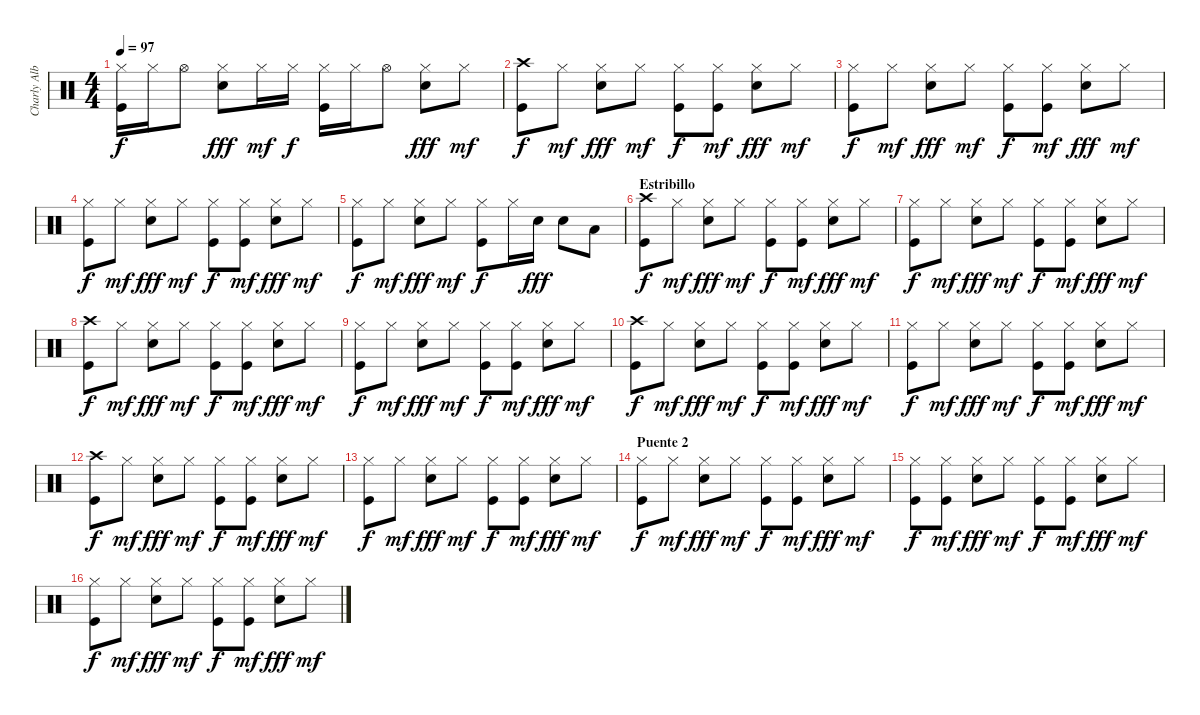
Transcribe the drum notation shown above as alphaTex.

\track ("Charly Alberti" "Charly Alb") {instrument percussion}
\staff {score}
\articulation defaults
\ts (4 4)
\tempo 97
\clef neutral
\ks c
("Kick (hit)" "Hi-Hat (closed)").16{dy f} "Hi-Hat (closed)".16 "Hi-Hat (open)".8 ("Snare (hit) 2" "Hi-Hat (closed)").8{dy fff} "Hi-Hat (closed)".16{dy mf} "Hi-Hat (closed)".16{dy f} ("Kick (hit)" "Hi-Hat (closed)").16 "Hi-Hat (closed)".16 "Hi-Hat (open)".8 ("Snare (hit) 2" "Hi-Hat (closed)").8{dy fff} "Hi-Hat (closed)".8{dy mf} |
("Kick (hit)" "Crash high (hit)").8{dy f} "Hi-Hat (closed)".8{dy mf} ("Snare (hit) 2" "Hi-Hat (closed)").8{dy fff} "Hi-Hat (closed)".8{dy mf} ("Kick (hit)" "Hi-Hat (closed)").8{dy f} ("Kick (hit)" "Hi-Hat (closed)").8{dy mf} ("Snare (hit) 2" "Hi-Hat (closed)").8{dy fff} "Hi-Hat (closed)".8{dy mf} |
("Kick (hit)" "Hi-Hat (closed)").8{dy f} "Hi-Hat (closed)".8{dy mf} ("Snare (hit) 2" "Hi-Hat (closed)").8{dy fff} "Hi-Hat (closed)".8{dy mf} ("Kick (hit)" "Hi-Hat (closed)").8{dy f} ("Kick (hit)" "Hi-Hat (closed)").8{dy mf} ("Snare (hit) 2" "Hi-Hat (closed)").8{dy fff} "Hi-Hat (closed)".8{dy mf} |
("Kick (hit)" "Hi-Hat (closed)").8{dy f} "Hi-Hat (closed)".8{dy mf} ("Snare (hit) 2" "Hi-Hat (closed)").8{dy fff} "Hi-Hat (closed)".8{dy mf} ("Kick (hit)" "Hi-Hat (closed)").8{dy f} ("Kick (hit)" "Hi-Hat (closed)").8{dy mf} ("Snare (hit) 2" "Hi-Hat (closed)").8{dy fff} "Hi-Hat (closed)".8{dy mf} |
("Kick (hit)" "Hi-Hat (closed)").8{dy f} "Hi-Hat (closed)".8{dy mf} ("Snare (hit) 2" "Hi-Hat (closed)").8{dy fff} "Hi-Hat (closed)".8{dy mf} ("Kick (hit)" "Hi-Hat (closed)").8{dy f} "Hi-Hat (closed)".16 "Snare (hit) 2".16{dy fff} "Snare (hit) 2".8 "Low Tom (hit)".8 |
\section ("" "Estribillo")
("Kick (hit)" "Crash high (hit)").8{dy f} "Hi-Hat (closed)".8{dy mf} ("Snare (hit) 2" "Hi-Hat (closed)").8{dy fff} "Hi-Hat (closed)".8{dy mf} ("Kick (hit)" "Hi-Hat (closed)").8{dy f} ("Kick (hit)" "Hi-Hat (closed)").8{dy mf} ("Snare (hit) 2" "Hi-Hat (closed)").8{dy fff} "Hi-Hat (closed)".8{dy mf} |
("Kick (hit)" "Hi-Hat (closed)").8{dy f} "Hi-Hat (closed)".8{dy mf} ("Snare (hit) 2" "Hi-Hat (closed)").8{dy fff} "Hi-Hat (closed)".8{dy mf} ("Kick (hit)" "Hi-Hat (closed)").8{dy f} ("Kick (hit)" "Hi-Hat (closed)").8{dy mf} ("Snare (hit) 2" "Hi-Hat (closed)").8{dy fff} "Hi-Hat (closed)".8{dy mf} |
("Kick (hit)" "Crash high (hit)").8{dy f} "Hi-Hat (closed)".8{dy mf} ("Snare (hit) 2" "Hi-Hat (closed)").8{dy fff} "Hi-Hat (closed)".8{dy mf} ("Kick (hit)" "Hi-Hat (closed)").8{dy f} ("Kick (hit)" "Hi-Hat (closed)").8{dy mf} ("Snare (hit) 2" "Hi-Hat (closed)").8{dy fff} "Hi-Hat (closed)".8{dy mf} |
("Kick (hit)" "Hi-Hat (closed)").8{dy f} "Hi-Hat (closed)".8{dy mf} ("Snare (hit) 2" "Hi-Hat (closed)").8{dy fff} "Hi-Hat (closed)".8{dy mf} ("Kick (hit)" "Hi-Hat (closed)").8{dy f} ("Kick (hit)" "Hi-Hat (closed)").8{dy mf} ("Snare (hit) 2" "Hi-Hat (closed)").8{dy fff} "Hi-Hat (closed)".8{dy mf} |
("Kick (hit)" "Crash high (hit)").8{dy f} "Hi-Hat (closed)".8{dy mf} ("Snare (hit) 2" "Hi-Hat (closed)").8{dy fff} "Hi-Hat (closed)".8{dy mf} ("Kick (hit)" "Hi-Hat (closed)").8{dy f} ("Kick (hit)" "Hi-Hat (closed)").8{dy mf} ("Snare (hit) 2" "Hi-Hat (closed)").8{dy fff} "Hi-Hat (closed)".8{dy mf} |
("Kick (hit)" "Hi-Hat (closed)").8{dy f} "Hi-Hat (closed)".8{dy mf} ("Snare (hit) 2" "Hi-Hat (closed)").8{dy fff} "Hi-Hat (closed)".8{dy mf} ("Kick (hit)" "Hi-Hat (closed)").8{dy f} ("Kick (hit)" "Hi-Hat (closed)").8{dy mf} ("Snare (hit) 2" "Hi-Hat (closed)").8{dy fff} "Hi-Hat (closed)".8{dy mf} |
("Kick (hit)" "Crash high (hit)").8{dy f} "Hi-Hat (closed)".8{dy mf} ("Snare (hit) 2" "Hi-Hat (closed)").8{dy fff} "Hi-Hat (closed)".8{dy mf} ("Kick (hit)" "Hi-Hat (closed)").8{dy f} ("Kick (hit)" "Hi-Hat (closed)").8{dy mf} ("Snare (hit) 2" "Hi-Hat (closed)").8{dy fff} "Hi-Hat (closed)".8{dy mf} |
("Kick (hit)" "Hi-Hat (closed)").8{dy f} "Hi-Hat (closed)".8{dy mf} ("Snare (hit) 2" "Hi-Hat (closed)").8{dy fff} "Hi-Hat (closed)".8{dy mf} ("Kick (hit)" "Hi-Hat (closed)").8{dy f} ("Kick (hit)" "Hi-Hat (closed)").8{dy mf} ("Snare (hit) 2" "Hi-Hat (closed)").8{dy fff} "Hi-Hat (closed)".8{dy mf} |
\section ("" "Puente 2")
("Kick (hit)" "Hi-Hat (closed)").8{dy f} "Hi-Hat (closed)".8{dy mf} ("Snare (hit) 2" "Hi-Hat (closed)").8{dy fff} "Hi-Hat (closed)".8{dy mf} ("Kick (hit)" "Hi-Hat (closed)").8{dy f} ("Kick (hit)" "Hi-Hat (closed)").8{dy mf} ("Snare (hit) 2" "Hi-Hat (closed)").8{dy fff} "Hi-Hat (closed)".8{dy mf} |
("Kick (hit)" "Hi-Hat (closed)").8{dy f} ("Kick (hit)" "Hi-Hat (closed)").8{dy mf} ("Snare (hit) 2" "Hi-Hat (closed)").8{dy fff} "Hi-Hat (closed)".8{dy mf} ("Kick (hit)" "Hi-Hat (closed)").8{dy f} ("Kick (hit)" "Hi-Hat (closed)").8{dy mf} ("Snare (hit) 2" "Hi-Hat (closed)").8{dy fff} "Hi-Hat (closed)".8{dy mf} |
("Kick (hit)" "Hi-Hat (closed)").8{dy f} "Hi-Hat (closed)".8{dy mf} ("Snare (hit) 2" "Hi-Hat (closed)").8{dy fff} "Hi-Hat (closed)".8{dy mf} ("Kick (hit)" "Hi-Hat (closed)").8{dy f} ("Kick (hit)" "Hi-Hat (closed)").8{dy mf} ("Snare (hit) 2" "Hi-Hat (closed)").8{dy fff} "Hi-Hat (closed)".8{dy mf}
